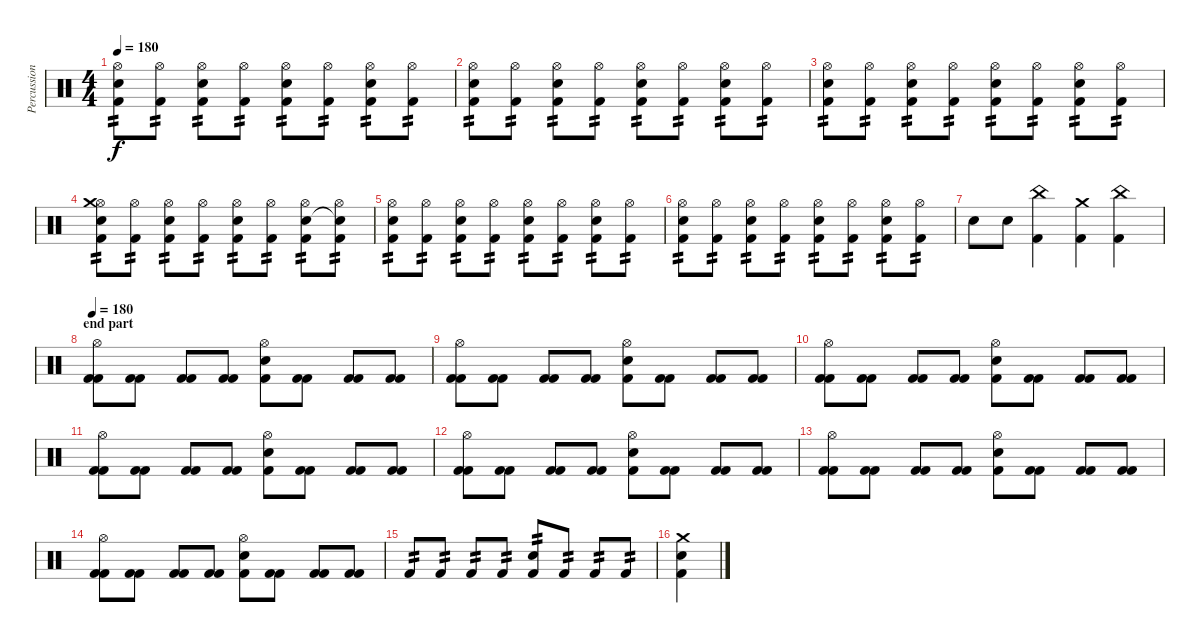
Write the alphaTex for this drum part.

\track ("Percussion" "Percussion") {instrument percussion}
\staff {score}
\articulation defaults
\ts (4 4)
\tempo 180
\clef neutral
\ks c
("Hi-Hat (open)" "Electric Snare (hit)" "Kick (hit) 2").8{tp 2 dy f} ("Hi-Hat (open)" "Kick (hit) 2").8{tp 2} ("Hi-Hat (open)" "Electric Snare (hit)" "Kick (hit) 2").8{tp 2} ("Hi-Hat (open)" "Kick (hit) 2").8{tp 2} ("Hi-Hat (open)" "Electric Snare (hit)" "Kick (hit) 2").8{tp 2} ("Hi-Hat (open)" "Kick (hit) 2").8{tp 2} ("Hi-Hat (open)" "Electric Snare (hit)" "Kick (hit) 2").8{tp 2} ("Hi-Hat (open)" "Kick (hit) 2").8{tp 2} |
("Hi-Hat (open)" "Electric Snare (hit)" "Kick (hit) 2").8{tp 2} ("Hi-Hat (open)" "Kick (hit) 2").8{tp 2} ("Hi-Hat (open)" "Electric Snare (hit)" "Kick (hit) 2").8{tp 2} ("Hi-Hat (open)" "Kick (hit) 2").8{tp 2} ("Hi-Hat (open)" "Electric Snare (hit)" "Kick (hit) 2").8{tp 2} ("Hi-Hat (open)" "Kick (hit) 2").8{tp 2} ("Hi-Hat (open)" "Electric Snare (hit)" "Kick (hit) 2").8{tp 2} ("Hi-Hat (open)" "Kick (hit) 2").8{tp 2} |
("Hi-Hat (open)" "Electric Snare (hit)" "Kick (hit) 2").8{tp 2} ("Hi-Hat (open)" "Kick (hit) 2").8{tp 2} ("Hi-Hat (open)" "Electric Snare (hit)" "Kick (hit) 2").8{tp 2} ("Hi-Hat (open)" "Kick (hit) 2").8{tp 2} ("Hi-Hat (open)" "Electric Snare (hit)" "Kick (hit) 2").8{tp 2} ("Hi-Hat (open)" "Kick (hit) 2").8{tp 2} ("Hi-Hat (open)" "Electric Snare (hit)" "Kick (hit) 2").8{tp 2} ("Hi-Hat (open)" "Kick (hit) 2").8{tp 2} |
("Hi-Hat (open)" "Crash medium (hit)" "Electric Snare (hit)" "Kick (hit) 2").8{tp 2} ("Hi-Hat (open)" "Kick (hit) 2").8{tp 2} ("Hi-Hat (open)" "Electric Snare (hit)" "Kick (hit) 2").8{tp 2} ("Hi-Hat (open)" "Kick (hit) 2").8{tp 2} ("Hi-Hat (open)" "Electric Snare (hit)" "Kick (hit) 2").8{tp 2} ("Hi-Hat (open)" "Kick (hit) 2").8{tp 2} ("Hi-Hat (open)" "Electric Snare (hit)" "Kick (hit) 2").8{tp 2} ("Hi-Hat (open)" "Snare (hit)"{t} "Kick (hit) 2").8{tp 2} |
("Hi-Hat (open)" "Electric Snare (hit)" "Kick (hit) 2").8{tp 2} ("Hi-Hat (open)" "Kick (hit) 2").8{tp 2} ("Hi-Hat (open)" "Electric Snare (hit)" "Kick (hit) 2").8{tp 2} ("Hi-Hat (open)" "Kick (hit) 2").8{tp 2} ("Hi-Hat (open)" "Electric Snare (hit)" "Kick (hit) 2").8{tp 2} ("Hi-Hat (open)" "Kick (hit) 2").8{tp 2} ("Hi-Hat (open)" "Electric Snare (hit)" "Kick (hit) 2").8{tp 2} ("Hi-Hat (open)" "Kick (hit) 2").8{tp 2} |
("Hi-Hat (open)" "Electric Snare (hit)" "Kick (hit) 2").8{tp 2} ("Hi-Hat (open)" "Kick (hit) 2").8{tp 2} ("Hi-Hat (open)" "Electric Snare (hit)" "Kick (hit) 2").8{tp 2} ("Hi-Hat (open)" "Kick (hit) 2").8{tp 2} ("Hi-Hat (open)" "Electric Snare (hit)" "Kick (hit) 2").8{tp 2} ("Hi-Hat (open)" "Kick (hit) 2").8{tp 2} ("Hi-Hat (open)" "Electric Snare (hit)" "Kick (hit) 2").8{tp 2} ("Hi-Hat (open)" "Kick (hit) 2").8{tp 2} |
"Electric Snare (hit)".8 "Electric Snare (hit)".8 ("China (hit)" "Kick (hit) 2").4 ("Crash medium (hit)" "Kick (hit) 2").4 ("China (hit)" "Kick (hit) 2").4 |
\section ("" "end part")
\tempo 180
("Hi-Hat (open)" "Kick (hit) 2" "Kick (hit) 2").8 ("Kick (hit) 2" "Kick (hit) 2").8 ("Kick (hit) 2" "Kick (hit) 2").8 ("Kick (hit) 2" "Kick (hit) 2").8 ("Hi-Hat (open)" "Electric Snare (hit)" "Kick (hit) 2").8 ("Kick (hit) 2" "Kick (hit) 2").8 ("Kick (hit) 2" "Kick (hit) 2").8 ("Kick (hit) 2" "Kick (hit) 2").8 |
("Hi-Hat (open)" "Kick (hit) 2" "Kick (hit) 2").8 ("Kick (hit) 2" "Kick (hit) 2").8 ("Kick (hit) 2" "Kick (hit) 2").8 ("Kick (hit) 2" "Kick (hit) 2").8 ("Hi-Hat (open)" "Electric Snare (hit)" "Kick (hit) 2").8 ("Kick (hit) 2" "Kick (hit) 2").8 ("Kick (hit) 2" "Kick (hit) 2").8 ("Kick (hit) 2" "Kick (hit) 2").8 |
("Hi-Hat (open)" "Kick (hit) 2" "Kick (hit) 2").8 ("Kick (hit) 2" "Kick (hit) 2").8 ("Kick (hit) 2" "Kick (hit) 2").8 ("Kick (hit) 2" "Kick (hit) 2").8 ("Hi-Hat (open)" "Electric Snare (hit)" "Kick (hit) 2").8 ("Kick (hit) 2" "Kick (hit) 2").8 ("Kick (hit) 2" "Kick (hit) 2").8 ("Kick (hit) 2" "Kick (hit) 2").8 |
("Hi-Hat (open)" "Kick (hit) 2" "Kick (hit) 2").8 ("Kick (hit) 2" "Kick (hit) 2").8 ("Kick (hit) 2" "Kick (hit) 2").8 ("Kick (hit) 2" "Kick (hit) 2").8 ("Hi-Hat (open)" "Electric Snare (hit)" "Kick (hit) 2").8 ("Kick (hit) 2" "Kick (hit) 2").8 ("Kick (hit) 2" "Kick (hit) 2").8 ("Kick (hit) 2" "Kick (hit) 2").8 |
("Hi-Hat (open)" "Kick (hit) 2" "Kick (hit) 2").8 ("Kick (hit) 2" "Kick (hit) 2").8 ("Kick (hit) 2" "Kick (hit) 2").8 ("Kick (hit) 2" "Kick (hit) 2").8 ("Hi-Hat (open)" "Electric Snare (hit)" "Kick (hit) 2").8 ("Kick (hit) 2" "Kick (hit) 2").8 ("Kick (hit) 2" "Kick (hit) 2").8 ("Kick (hit) 2" "Kick (hit) 2").8 |
("Hi-Hat (open)" "Kick (hit) 2" "Kick (hit) 2").8 ("Kick (hit) 2" "Kick (hit) 2").8 ("Kick (hit) 2" "Kick (hit) 2").8 ("Kick (hit) 2" "Kick (hit) 2").8 ("Hi-Hat (open)" "Electric Snare (hit)" "Kick (hit) 2").8 ("Kick (hit) 2" "Kick (hit) 2").8 ("Kick (hit) 2" "Kick (hit) 2").8 ("Kick (hit) 2" "Kick (hit) 2").8 |
("Hi-Hat (open)" "Kick (hit) 2" "Kick (hit) 2").8 ("Kick (hit) 2" "Kick (hit) 2").8 ("Kick (hit) 2" "Kick (hit) 2").8 ("Kick (hit) 2" "Kick (hit) 2").8 ("Hi-Hat (open)" "Electric Snare (hit)" "Kick (hit) 2").8 ("Kick (hit) 2" "Kick (hit) 2").8 ("Kick (hit) 2" "Kick (hit) 2").8 ("Kick (hit) 2" "Kick (hit) 2").8 |
"Kick (hit) 2".8{tp 2} "Kick (hit) 2".8{tp 2} "Kick (hit) 2".8{tp 2} "Kick (hit) 2".8{tp 2} ("Electric Snare (hit)" "Kick (hit) 2").8{tp 2} "Kick (hit) 2".8{tp 2} "Kick (hit) 2".8{tp 2} "Kick (hit) 2".8{tp 2} |
("Crash medium (hit)" "Electric Snare (hit)" "Kick (hit) 2").4
